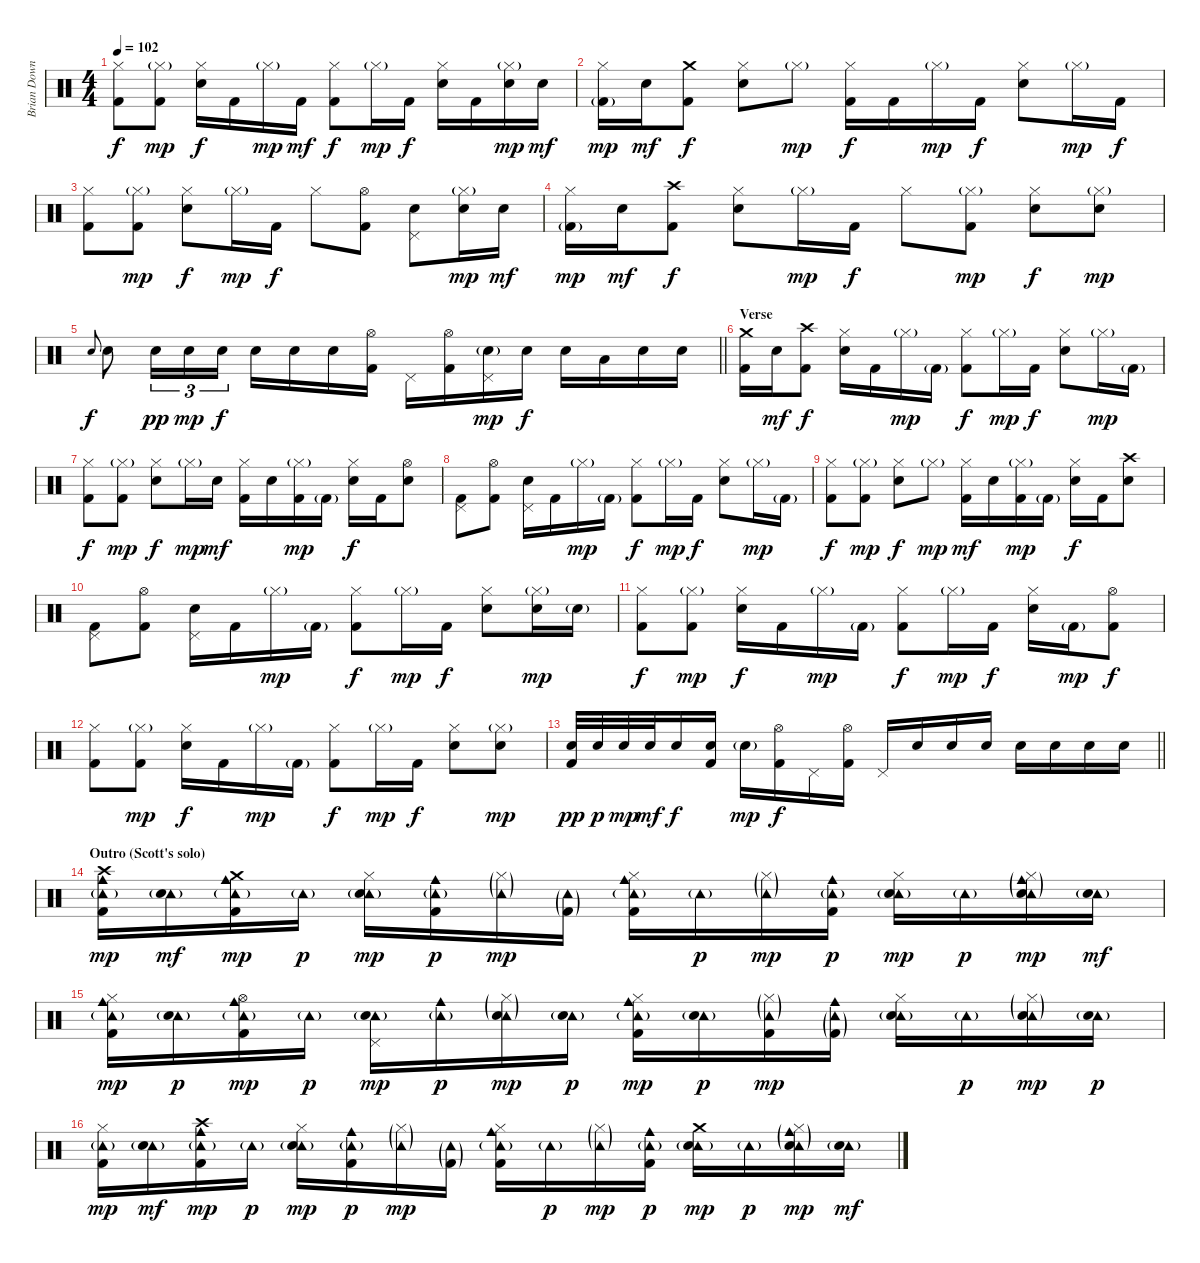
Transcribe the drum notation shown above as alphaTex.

\track ("Brian Downey" "Brian Down") {instrument percussion}
\staff {score}
\articulation defaults
\ts (4 4)
\tempo 102
\clef neutral
\ks aminor
("Hi-Hat (closed)" "Kick (hit) 2").8{dy f} ("Hi-Hat (closed)"{g} "Kick (hit) 2").8{dy mp} ("Hi-Hat (closed)" "Electric Snare (hit)").16{dy f} "Kick (hit) 2".16 "Hi-Hat (closed)"{g}.16{dy mp} "Kick (hit) 2".16{dy mf} ("Hi-Hat (closed)" "Kick (hit) 2").8{dy f} "Hi-Hat (closed)"{g}.16{dy mp} "Kick (hit) 2".16{dy f} ("Hi-Hat (closed)" "Electric Snare (hit)").16 "Kick (hit) 2".16 ("Hi-Hat (closed)"{g} "Electric Snare (hit)").16{dy mp} "Electric Snare (hit)".16{dy mf} |
("Hi-Hat (closed)" "Kick (hit) 2"{g}).16{dy mp} "Electric Snare (hit)".16{dy mf} ("Crash medium (hit)" "Kick (hit) 2").8{dy f} ("Hi-Hat (closed)" "Electric Snare (hit)").8 "Hi-Hat (closed)"{g}.8{dy mp} ("Hi-Hat (closed)" "Kick (hit) 2").16{dy f} "Kick (hit) 2".16 "Hi-Hat (closed)"{g}.16{dy mp} "Kick (hit) 2".16{dy f} ("Hi-Hat (closed)" "Electric Snare (hit)").8 "Hi-Hat (closed)"{g}.16{dy mp} "Kick (hit) 2".16{dy f} |
("Hi-Hat (closed)" "Kick (hit) 2").8 ("Hi-Hat (closed)"{g} "Kick (hit) 2").8{dy mp} ("Hi-Hat (closed)" "Electric Snare (hit)").8{dy f} "Hi-Hat (closed)"{g}.16{dy mp} "Kick (hit) 2".16{dy f} "Hi-Hat (closed)".8 ("Hi-Hat (open)" "Kick (hit) 2").8 ("Pedal Hi-Hat (hit)" "Electric Snare (hit)").8 ("Hi-Hat (closed)"{g} "Electric Snare (hit)").16{dy mp} "Electric Snare (hit)".16{dy mf} |
("Hi-Hat (closed)" "Kick (hit) 2"{g}).16{dy mp} "Electric Snare (hit)".16{dy mf} ("Crash high (hit)" "Kick (hit) 2").8{dy f} ("Hi-Hat (closed)" "Electric Snare (hit)").8 "Hi-Hat (closed)"{g}.16{dy mp} "Kick (hit) 2".16{dy f} "Hi-Hat (closed)".8 ("Hi-Hat (closed)"{g} "Kick (hit) 2").8{dy mp} ("Hi-Hat (closed)" "Electric Snare (hit)").8{dy f} ("Hi-Hat (closed)"{g} "Electric Snare (hit)").8{dy mp} |
\barLineRight lightlight "Electric Snare (hit)".8{gr onbeat dy f} "Electric Snare (hit)".8 "Electric Snare (hit)".16{tu (3 2) dy pp} "Electric Snare (hit)".16{tu (3 2) dy mp} "Electric Snare (hit)".16{tu (3 2) dy f} "Electric Snare (hit)".16 "Electric Snare (hit)".16 "Electric Snare (hit)".16
("Hi-Hat (open)" "Kick (hit) 2").16 "Pedal Hi-Hat (hit)".16 ("Hi-Hat (open)" "Kick (hit) 2").16 ("Pedal Hi-Hat (hit)" "Electric Snare (hit)"{g}).16{dy mp} "Electric Snare (hit)".16{dy f} "Electric Snare (hit)".16 "Low Tom (hit)".16 "Electric Snare (hit)".16 "Electric Snare (hit)".16 |
\section ("" "Verse")
("Crash medium (hit)" "Kick (hit) 2").16 "Electric Snare (hit)".16{dy mf} ("Crash high (hit)" "Kick (hit) 2").8{dy f} ("Hi-Hat (closed)" "Electric Snare (hit)").16 "Kick (hit) 2".16 "Hi-Hat (closed)"{g}.16{dy mp} "Kick (hit) 2"{g}.16 ("Hi-Hat (closed)" "Kick (hit) 2").8{dy f} "Hi-Hat (closed)"{g}.16{dy mp} "Kick (hit) 2".16{dy f} ("Hi-Hat (closed)" "Electric Snare (hit)").8 "Hi-Hat (closed)"{g}.16{dy mp} "Kick (hit) 2"{g}.16 |
("Hi-Hat (closed)" "Kick (hit) 2").8{dy f} ("Hi-Hat (closed)"{g} "Kick (hit) 2").8{dy mp} ("Hi-Hat (closed)" "Electric Snare (hit)").8{dy f} "Hi-Hat (closed)"{g}.16{dy mp} "Electric Snare (hit)".16{dy mf} ("Hi-Hat (closed)" "Kick (hit) 2").16 "Electric Snare (hit)".16 ("Hi-Hat (closed)"{g} "Kick (hit) 2").16{dy mp} "Kick (hit) 2"{g}.16 ("Hi-Hat (closed)" "Electric Snare (hit)").16{dy f} "Kick (hit) 2".16 ("Hi-Hat (open)" "Electric Snare (hit)").8 |
("Pedal Hi-Hat (hit)" "Kick (hit) 2").8 ("Hi-Hat (open)" "Kick (hit) 2").8 ("Pedal Hi-Hat (hit)" "Electric Snare (hit)").16 "Kick (hit) 2".16 "Hi-Hat (closed)"{g}.16{dy mp} "Kick (hit) 2"{g}.16 ("Hi-Hat (closed)" "Kick (hit) 2").8{dy f} "Hi-Hat (closed)"{g}.16{dy mp} "Kick (hit) 2".16{dy f} ("Hi-Hat (closed)" "Electric Snare (hit)").8 "Hi-Hat (closed)"{g}.16{dy mp} "Kick (hit) 2"{g}.16 |
("Hi-Hat (closed)" "Kick (hit) 2").8{dy f} ("Hi-Hat (closed)"{g} "Kick (hit) 2").8{dy mp} ("Hi-Hat (closed)" "Electric Snare (hit)").8{dy f} "Hi-Hat (closed)"{g}.8{dy mp} ("Hi-Hat (closed)" "Kick (hit) 2").16{dy mf} "Electric Snare (hit)".16 ("Hi-Hat (closed)"{g} "Kick (hit) 2").16{dy mp} "Kick (hit) 2"{g}.16 ("Hi-Hat (closed)" "Electric Snare (hit)").16{dy f} "Kick (hit) 2".16 ("Crash high (hit)" "Electric Snare (hit)").8 |
("Pedal Hi-Hat (hit)" "Kick (hit) 2").8 ("Hi-Hat (open)" "Kick (hit) 2").8 ("Pedal Hi-Hat (hit)" "Electric Snare (hit)").16 "Kick (hit) 2".16 "Hi-Hat (closed)"{g}.16{dy mp} "Kick (hit) 2"{g}.16 ("Hi-Hat (closed)" "Kick (hit) 2").8{dy f} "Hi-Hat (closed)"{g}.16{dy mp} "Kick (hit) 2".16{dy f} ("Hi-Hat (closed)" "Electric Snare (hit)").8 ("Hi-Hat (closed)"{g} "Electric Snare (hit)").16{dy mp} "Electric Snare (hit)"{g}.16 |
("Hi-Hat (closed)" "Kick (hit) 2").8{dy f} ("Hi-Hat (closed)"{g} "Kick (hit) 2").8{dy mp} ("Hi-Hat (closed)" "Electric Snare (hit)").16{dy f} "Kick (hit) 2".16 "Hi-Hat (closed)"{g}.16{dy mp} "Kick (hit) 2"{g}.16 ("Hi-Hat (closed)" "Kick (hit) 2").8{dy f} "Hi-Hat (closed)"{g}.16{dy mp} "Kick (hit) 2".16{dy f} ("Hi-Hat (closed)" "Electric Snare (hit)").16 "Kick (hit) 2"{g}.16{dy mp} ("Hi-Hat (open)" "Kick (hit) 2").8{dy f} |
("Hi-Hat (closed)" "Kick (hit) 2").8 ("Hi-Hat (closed)"{g} "Kick (hit) 2").8{dy mp} ("Hi-Hat (closed)" "Electric Snare (hit)").16{dy f} "Kick (hit) 2".16 "Hi-Hat (closed)"{g}.16{dy mp} "Kick (hit) 2"{g}.16 ("Hi-Hat (closed)" "Kick (hit) 2").8{dy f} "Hi-Hat (closed)"{g}.16{dy mp} "Kick (hit) 2".16{dy f} ("Hi-Hat (closed)" "Electric Snare (hit)").8 ("Hi-Hat (closed)"{g} "Electric Snare (hit)").8{dy mp} |
\barLineRight lightlight
("Electric Snare (hit)" "Kick (hit) 2").32{dy pp} "Electric Snare (hit)".32{dy p} "Electric Snare (hit)".32{dy mp} "Electric Snare (hit)".32{dy mf} "Electric Snare (hit)".16{dy f} ("Electric Snare (hit)" "Kick (hit) 2").16 "Electric Snare (hit)"{g}.16{dy mp} ("Hi-Hat (open)" "Kick (hit) 2").16{dy f} "Pedal Hi-Hat (hit)".16 ("Hi-Hat (open)" "Kick (hit) 2").16 "Pedal Hi-Hat (hit)".16 "Electric Snare (hit)".16 "Electric Snare (hit)".16 "Electric Snare (hit)".16 "Electric Snare (hit)".16 "Electric Snare (hit)".16 "Electric Snare (hit)".16 "Electric Snare (hit)".16 |
\section ("" "Outro (Scott's solo)")
("Crash high (hit)" "Tambourine (hit)"{g} "Cowbell medium (hit)" "Kick (hit) 2").16{dy mp} ("Tambourine (hit)"{g} "Electric Snare (hit)").16{dy mf} ("Crash medium (hit)" "Tambourine (hit)"{g} "Cowbell medium (hit)" "Kick (hit) 2").16{dy mp} "Tambourine (hit)"{g}.16{dy p} ("Hi-Hat (closed)" "Tambourine (hit)"{g} "Electric Snare (hit)").16{dy mp} ("Tambourine (hit)"{g} "Cowbell medium (hit)" "Kick (hit) 2").16{dy p} ("Hi-Hat (closed)"{g} "Tambourine (hit)"{g}).16{dy mp} ("Tambourine (hit)"{g} "Kick (hit) 2"{g}).16 ("Hi-Hat (closed)" "Tambourine (hit)"{g} "Cowbell medium (hit)" "Kick (hit) 2").16 "Tambourine (hit)"{g}.16{dy p} ("Hi-Hat (closed)"{g} "Tambourine (hit)"{g}).16{dy mp} ("Tambourine (hit)"{g} "Cowbell medium (hit)" "Kick (hit) 2").16{dy p} ("Hi-Hat (closed)" "Tambourine (hit)"{g} "Electric Snare (hit)").16{dy mp} "Tambourine (hit)"{g}.16{dy p} ("Hi-Hat (closed)"{g} "Tambourine (hit)"{g} "Cowbell medium (hit)"{g} "Electric Snare (hit)").16{dy mp} ("Tambourine (hit)"{g} "Electric Snare (hit)").16{dy mf} |
("Hi-Hat (closed)" "Tambourine (hit)"{g} "Cowbell medium (hit)" "Kick (hit) 2").16{dy mp} ("Tambourine (hit)"{g} "Electric Snare (hit)").16{dy p} ("Hi-Hat (open)" "Tambourine (hit)"{g} "Cowbell medium (hit)" "Kick (hit) 2").16{dy mp} "Tambourine (hit)"{g}.16{dy p} ("Pedal Hi-Hat (hit)" "Tambourine (hit)"{g} "Electric Snare (hit)").16{dy mp} ("Tambourine (hit)"{g} "Cowbell medium (hit)").16{dy p} ("Hi-Hat (closed)"{g} "Tambourine (hit)"{g} "Electric Snare (hit)").16{dy mp} ("Tambourine (hit)"{g} "Electric Snare (hit)").16{dy p} ("Hi-Hat (closed)" "Tambourine (hit)"{g} "Cowbell medium (hit)" "Kick (hit) 2").16{dy mp} ("Tambourine (hit)"{g} "Electric Snare (hit)").16{dy p} ("Hi-Hat (closed)"{g} "Tambourine (hit)"{g} "Kick (hit) 2").16{dy mp} ("Tambourine (hit)"{g} "Cowbell medium (hit)" "Kick (hit) 2"{g}).16 ("Hi-Hat (closed)" "Tambourine (hit)"{g} "Electric Snare (hit)").16 "Tambourine (hit)"{g}.16{dy p} ("Hi-Hat (closed)"{g} "Tambourine (hit)"{g} "Electric Snare (hit)").16{dy mp} ("Tambourine (hit)"{g} "Electric Snare (hit)").16{dy p} |
("Hi-Hat (closed)" "Tambourine (hit)"{g} "Kick (hit) 2").16{dy mp} ("Tambourine (hit)"{g} "Electric Snare (hit)").16{dy mf} ("Crash high (hit)" "Tambourine (hit)"{g} "Cowbell medium (hit)" "Kick (hit) 2").16{dy mp} "Tambourine (hit)"{g}.16{dy p} ("Hi-Hat (closed)" "Tambourine (hit)"{g} "Electric Snare (hit)").16{dy mp} ("Tambourine (hit)"{g} "Cowbell medium (hit)" "Kick (hit) 2").16{dy p} ("Hi-Hat (closed)"{g} "Tambourine (hit)"{g}).16{dy mp} ("Tambourine (hit)"{g} "Kick (hit) 2"{g}).16 ("Hi-Hat (closed)" "Tambourine (hit)"{g} "Cowbell medium (hit)" "Kick (hit) 2").16 "Tambourine (hit)"{g}.16{dy p} ("Hi-Hat (closed)"{g} "Tambourine (hit)"{g}).16{dy mp} ("Tambourine (hit)"{g} "Cowbell medium (hit)" "Kick (hit) 2").16{dy p} ("Crash medium (hit)" "Tambourine (hit)"{g} "Electric Snare (hit)").16{dy mp} "Tambourine (hit)"{g}.16{dy p} ("Hi-Hat (closed)"{g} "Tambourine (hit)"{g} "Cowbell medium (hit)"{g} "Electric Snare (hit)").16{dy mp} ("Tambourine (hit)"{g} "Electric Snare (hit)").16{dy mf}
